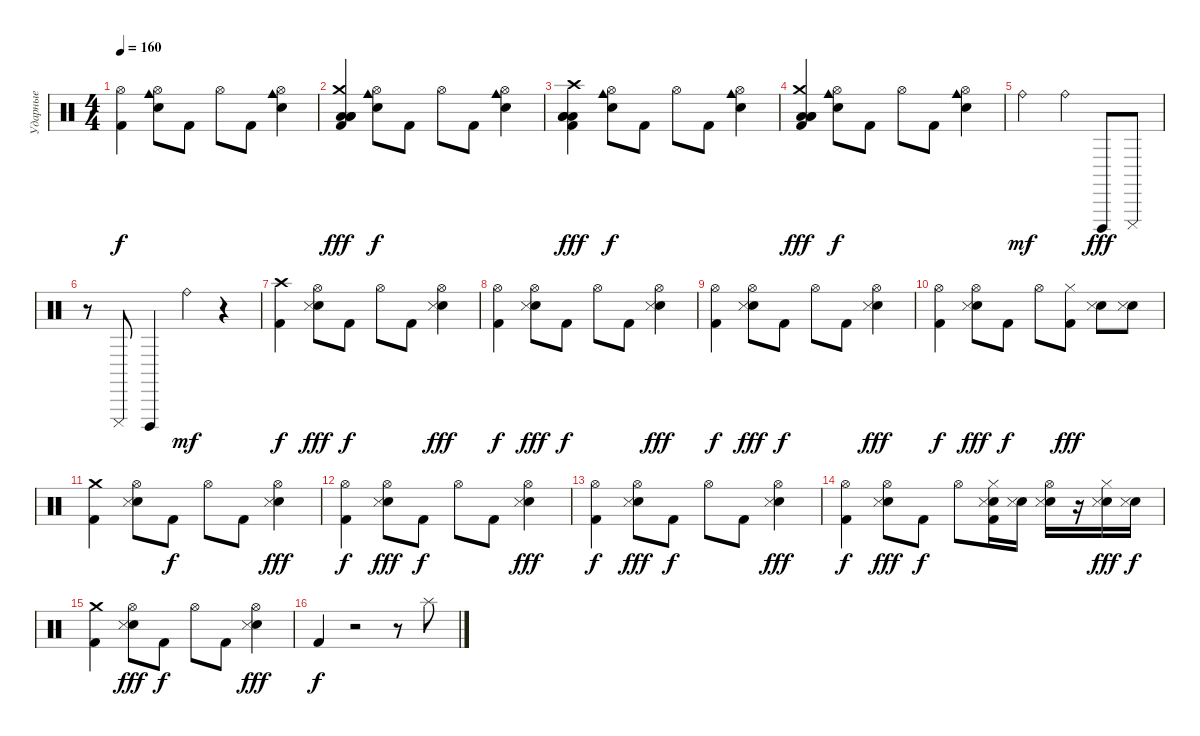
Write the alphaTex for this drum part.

\track ("Ударные" "Ударные") {instrument percussion}
\staff {score}
\articulation defaults
\ts (4 4)
\tempo 160
\clef neutral
\ks c
("Hi-Hat (open)" "Kick (hit) 2").4{dy f} ("Hi-Hat (open)" "Electric Snare (hit)" "Cowbell medium (hit)").8 "Kick (hit) 2".8 "Hi-Hat (open)".8 "Kick (hit) 2".8 ("Hi-Hat (open)" "Electric Snare (hit)" "Cowbell medium (hit)").4 |
("Crash medium (hit)" "Low Floor Tom (hit)" "Low Floor Tom (hit)" "Low Floor Tom (hit)" "Kick (hit) 2").4{dy fff} ("Hi-Hat (open)" "Electric Snare (hit)" "Cowbell medium (hit)").8{dy f} "Kick (hit) 2".8 "Hi-Hat (open)".8 "Kick (hit) 2".8 ("Hi-Hat (open)" "Electric Snare (hit)" "Cowbell medium (hit)").4 |
("Crash high (hit)" "Low Floor Tom (hit)" "Low Floor Tom (hit)" "Low Floor Tom (hit)" "Kick (hit) 2").4{dy fff} ("Hi-Hat (open)" "Electric Snare (hit)" "Cowbell medium (hit)").8{dy f} "Kick (hit) 2".8 "Hi-Hat (open)".8 "Kick (hit) 2".8 ("Hi-Hat (open)" "Electric Snare (hit)" "Cowbell medium (hit)").4 |
("Crash medium (hit)" "Low Floor Tom (hit)" "Low Floor Tom (hit)" "Low Floor Tom (hit)" "Kick (hit) 2").4{dy fff} ("Hi-Hat (open)" "Electric Snare (hit)" "Cowbell medium (hit)").8{dy f} "Kick (hit) 2".8 "Hi-Hat (open)".8 "Kick (hit) 2".8 ("Hi-Hat (open)" "Electric Snare (hit)" "Cowbell medium (hit)").4 |
"Ride (bell)".2{dy mf} "Ride (bell)".4 "Cuica (open)".8{dy fff} "Cuica (mute)".8 |
r.8 "Cuica (mute)".8 "Cuica (open)".4 "Ride (bell)".4{dy mf} r.4 |
("Crash high (hit)" "Kick (hit) 2").4{dy f} ("Hi-Hat (open)" "Electric Snare (hit)" "Snare (side stick) 3").8{dy fff} "Kick (hit) 2".8{dy f} "Hi-Hat (open)".8 "Kick (hit) 2".8 ("Hi-Hat (open)" "Electric Snare (hit)" "Snare (side stick) 3").4{dy fff} |
("Hi-Hat (open)" "Kick (hit) 2").4{dy f} ("Hi-Hat (open)" "Electric Snare (hit)" "Snare (side stick) 3").8{dy fff} "Kick (hit) 2".8{dy f} "Hi-Hat (open)".8 "Kick (hit) 2".8 ("Hi-Hat (open)" "Electric Snare (hit)" "Snare (side stick) 3").4{dy fff} |
("Hi-Hat (open)" "Kick (hit) 2").4{dy f} ("Hi-Hat (open)" "Electric Snare (hit)" "Snare (side stick) 3").8{dy fff} "Kick (hit) 2".8{dy f} "Hi-Hat (open)".8 "Kick (hit) 2".8 ("Hi-Hat (open)" "Electric Snare (hit)" "Snare (side stick) 3").4{dy fff} |
("Hi-Hat (open)" "Kick (hit) 2").4{dy f} ("Hi-Hat (open)" "Electric Snare (hit)" "Snare (side stick) 3").8{dy fff} "Kick (hit) 2".8{dy f} "Hi-Hat (open)".8 ("Hi-Hat (closed)" "Kick (hit) 2").8{dy fff} ("Electric Snare (hit)" "Snare (side stick) 3").8 ("Electric Snare (hit)" "Snare (side stick) 3").8 |
("Crash medium (hit)" "Kick (hit) 2").4 ("Hi-Hat (open)" "Electric Snare (hit)" "Snare (side stick) 3").8 "Kick (hit) 2".8{dy f} "Hi-Hat (open)".8 "Kick (hit) 2".8 ("Hi-Hat (open)" "Electric Snare (hit)" "Snare (side stick) 3").4{dy fff} |
("Hi-Hat (open)" "Kick (hit) 2").4{dy f} ("Hi-Hat (open)" "Electric Snare (hit)" "Snare (side stick) 3").8{dy fff} "Kick (hit) 2".8{dy f} "Hi-Hat (open)".8 "Kick (hit) 2".8 ("Hi-Hat (open)" "Electric Snare (hit)" "Snare (side stick) 3").4{dy fff} |
("Hi-Hat (open)" "Kick (hit) 2").4{dy f} ("Hi-Hat (open)" "Electric Snare (hit)" "Snare (side stick) 3").8{dy fff} "Kick (hit) 2".8{dy f} "Hi-Hat (open)".8 "Kick (hit) 2".8 ("Hi-Hat (open)" "Electric Snare (hit)" "Snare (side stick) 3").4{dy fff} |
("Hi-Hat (open)" "Kick (hit) 2").4{dy f} ("Hi-Hat (open)" "Electric Snare (hit)" "Snare (side stick) 3").8{dy fff} "Kick (hit) 2".8{dy f} "Hi-Hat (open)".8 ("Hi-Hat (closed)" "Electric Snare (hit)" "Snare (side stick) 3" "Kick (hit) 2").16 ("Electric Snare (hit)" "Snare (side stick) 3").16 ("Hi-Hat (open)" "Electric Snare (hit)" "Snare (side stick) 3").16 r.16 ("Hi-Hat (closed)" "Electric Snare (hit)" "Snare (side stick) 3").16{dy fff} ("Electric Snare (hit)" "Snare (side stick) 3").16{dy f} |
("Crash medium (hit)" "Kick (hit) 2").4 ("Hi-Hat (open)" "Electric Snare (hit)" "Snare (side stick) 3").8{dy fff} "Kick (hit) 2".8{dy f} "Hi-Hat (open)".8 "Kick (hit) 2".8 ("Hi-Hat (open)" "Electric Snare (hit)" "Snare (side stick) 3").4{dy fff} |
"Kick (hit) 2".4{dy f} r.2 r.8 "Splash (hit)".8
